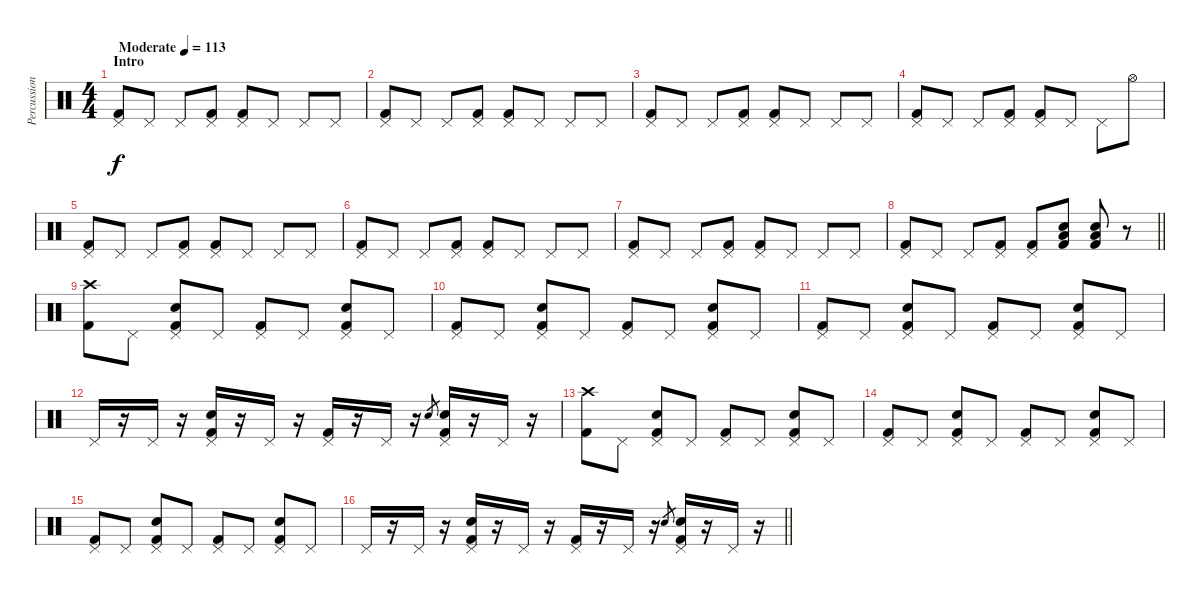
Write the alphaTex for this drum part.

\track ("Percussions" "Percussion") {instrument percussion}
\staff {score}
\articulation defaults
\ts (4 4)
\section ("" "Intro")
\tempo (113 "Moderate")
\clef neutral
\ks c
("Pedal Hi-Hat (hit)" "Kick (hit) 2").8{dy f} "Pedal Hi-Hat (hit)".8 "Pedal Hi-Hat (hit)".8 ("Pedal Hi-Hat (hit)" "Kick (hit) 2").8 ("Pedal Hi-Hat (hit)" "Kick (hit) 2").8 "Pedal Hi-Hat (hit)".8 "Pedal Hi-Hat (hit)".8 "Pedal Hi-Hat (hit)".8 |
("Pedal Hi-Hat (hit)" "Kick (hit) 2").8 "Pedal Hi-Hat (hit)".8 "Pedal Hi-Hat (hit)".8 ("Pedal Hi-Hat (hit)" "Kick (hit) 2").8 ("Pedal Hi-Hat (hit)" "Kick (hit) 2").8 "Pedal Hi-Hat (hit)".8 "Pedal Hi-Hat (hit)".8 "Pedal Hi-Hat (hit)".8 |
("Pedal Hi-Hat (hit)" "Kick (hit) 2").8 "Pedal Hi-Hat (hit)".8 "Pedal Hi-Hat (hit)".8 ("Pedal Hi-Hat (hit)" "Kick (hit) 2").8 ("Pedal Hi-Hat (hit)" "Kick (hit) 2").8 "Pedal Hi-Hat (hit)".8 "Pedal Hi-Hat (hit)".8 "Pedal Hi-Hat (hit)".8 |
("Pedal Hi-Hat (hit)" "Kick (hit) 2").8 "Pedal Hi-Hat (hit)".8 "Pedal Hi-Hat (hit)".8 ("Pedal Hi-Hat (hit)" "Kick (hit) 2").8 ("Pedal Hi-Hat (hit)" "Kick (hit) 2").8 "Pedal Hi-Hat (hit)".8 "Pedal Hi-Hat (hit)".8 "Hi-Hat (open)".8 |
("Pedal Hi-Hat (hit)" "Kick (hit) 2").8 "Pedal Hi-Hat (hit)".8 "Pedal Hi-Hat (hit)".8 ("Pedal Hi-Hat (hit)" "Kick (hit) 2").8 ("Pedal Hi-Hat (hit)" "Kick (hit) 2").8 "Pedal Hi-Hat (hit)".8 "Pedal Hi-Hat (hit)".8 "Pedal Hi-Hat (hit)".8 |
("Pedal Hi-Hat (hit)" "Kick (hit) 2").8 "Pedal Hi-Hat (hit)".8 "Pedal Hi-Hat (hit)".8 ("Pedal Hi-Hat (hit)" "Kick (hit) 2").8 ("Pedal Hi-Hat (hit)" "Kick (hit) 2").8 "Pedal Hi-Hat (hit)".8 "Pedal Hi-Hat (hit)".8 "Pedal Hi-Hat (hit)".8 |
("Pedal Hi-Hat (hit)" "Kick (hit) 2").8 "Pedal Hi-Hat (hit)".8 "Pedal Hi-Hat (hit)".8 ("Pedal Hi-Hat (hit)" "Kick (hit) 2").8 ("Pedal Hi-Hat (hit)" "Kick (hit) 2").8 "Pedal Hi-Hat (hit)".8 "Pedal Hi-Hat (hit)".8 "Pedal Hi-Hat (hit)".8 |
\barLineRight lightlight
("Pedal Hi-Hat (hit)" "Kick (hit) 2").8 "Pedal Hi-Hat (hit)".8 "Pedal Hi-Hat (hit)".8 ("Pedal Hi-Hat (hit)" "Kick (hit) 2").8 ("Pedal Hi-Hat (hit)" "Kick (hit) 2").8 ("Low Floor Tom (hit)" "Electric Snare (hit)" "Kick (hit) 2").8 ("Low Floor Tom (hit)" "Electric Snare (hit)" "Kick (hit) 2").8 r.8 |
("Crash high (hit)" "Kick (hit) 2").8 "Pedal Hi-Hat (hit)".8 ("Pedal Hi-Hat (hit)" "Electric Snare (hit)" "Kick (hit) 2").8 "Pedal Hi-Hat (hit)".8 ("Pedal Hi-Hat (hit)" "Kick (hit) 2").8 "Pedal Hi-Hat (hit)".8 ("Pedal Hi-Hat (hit)" "Electric Snare (hit)" "Kick (hit) 2").8 "Pedal Hi-Hat (hit)".8 |
("Pedal Hi-Hat (hit)" "Kick (hit) 2").8 "Pedal Hi-Hat (hit)".8 ("Pedal Hi-Hat (hit)" "Electric Snare (hit)" "Kick (hit) 2").8 "Pedal Hi-Hat (hit)".8 ("Pedal Hi-Hat (hit)" "Kick (hit) 2").8 "Pedal Hi-Hat (hit)".8 ("Pedal Hi-Hat (hit)" "Electric Snare (hit)" "Kick (hit) 2").8 "Pedal Hi-Hat (hit)".8 |
("Pedal Hi-Hat (hit)" "Kick (hit) 2").8 "Pedal Hi-Hat (hit)".8 ("Pedal Hi-Hat (hit)" "Electric Snare (hit)" "Kick (hit) 2").8 "Pedal Hi-Hat (hit)".8 ("Pedal Hi-Hat (hit)" "Kick (hit) 2").8 "Pedal Hi-Hat (hit)".8 ("Pedal Hi-Hat (hit)" "Electric Snare (hit)" "Kick (hit) 2").8 "Pedal Hi-Hat (hit)".8 |
"Pedal Hi-Hat (hit)".16 r.16 "Pedal Hi-Hat (hit)".16 r.16 ("Pedal Hi-Hat (hit)" "Electric Snare (hit)" "Kick (hit) 2").16 r.16 "Pedal Hi-Hat (hit)".16 r.16 ("Pedal Hi-Hat (hit)" "Kick (hit) 2").16 r.16 "Pedal Hi-Hat (hit)".16 r.16 "Electric Snare (hit)".8{gr} ("Pedal Hi-Hat (hit)" "Electric Snare (hit)" "Kick (hit) 2").16 r.16 "Pedal Hi-Hat (hit)".16 r.16 |
("Crash high (hit)" "Kick (hit) 2").8 "Pedal Hi-Hat (hit)".8 ("Pedal Hi-Hat (hit)" "Electric Snare (hit)" "Kick (hit) 2").8 "Pedal Hi-Hat (hit)".8 ("Pedal Hi-Hat (hit)" "Kick (hit) 2").8 "Pedal Hi-Hat (hit)".8 ("Pedal Hi-Hat (hit)" "Electric Snare (hit)" "Kick (hit) 2").8 "Pedal Hi-Hat (hit)".8 |
("Pedal Hi-Hat (hit)" "Kick (hit) 2").8 "Pedal Hi-Hat (hit)".8 ("Pedal Hi-Hat (hit)" "Electric Snare (hit)" "Kick (hit) 2").8 "Pedal Hi-Hat (hit)".8 ("Pedal Hi-Hat (hit)" "Kick (hit) 2").8 "Pedal Hi-Hat (hit)".8 ("Pedal Hi-Hat (hit)" "Electric Snare (hit)" "Kick (hit) 2").8 "Pedal Hi-Hat (hit)".8 |
("Pedal Hi-Hat (hit)" "Kick (hit) 2").8 "Pedal Hi-Hat (hit)".8 ("Pedal Hi-Hat (hit)" "Electric Snare (hit)" "Kick (hit) 2").8 "Pedal Hi-Hat (hit)".8 ("Pedal Hi-Hat (hit)" "Kick (hit) 2").8 "Pedal Hi-Hat (hit)".8 ("Pedal Hi-Hat (hit)" "Electric Snare (hit)" "Kick (hit) 2").8 "Pedal Hi-Hat (hit)".8 |
\barLineRight lightlight "Pedal Hi-Hat (hit)".16
r.16 "Pedal Hi-Hat (hit)".16 r.16 ("Pedal Hi-Hat (hit)" "Electric Snare (hit)" "Kick (hit) 2").16 r.16 "Pedal Hi-Hat (hit)".16 r.16 ("Pedal Hi-Hat (hit)" "Kick (hit) 2").16 r.16 "Pedal Hi-Hat (hit)".16 r.16 "Electric Snare (hit)".8{gr} ("Pedal Hi-Hat (hit)" "Electric Snare (hit)" "Kick (hit) 2").16 r.16 "Pedal Hi-Hat (hit)".16 r.16
